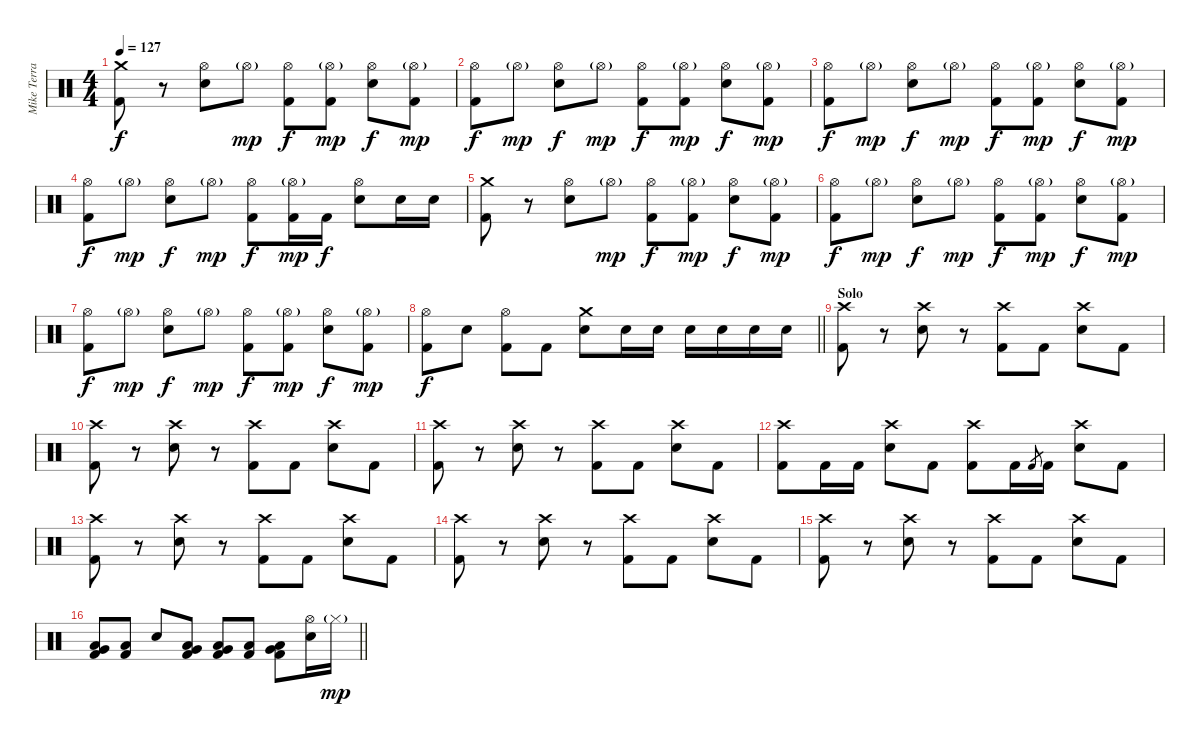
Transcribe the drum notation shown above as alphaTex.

\track ("Mike Terrana" "Mike Terra") {instrument percussion}
\staff {score}
\articulation defaults
\ts (4 4)
\tempo 127
\clef neutral
\ks c
("Crash medium (hit)" "Kick (hit) 2").8{dy f} r.8 ("Hi-Hat (open)" "Snare (hit) 2").8 "Hi-Hat (open)"{g}.8{dy mp} ("Hi-Hat (open)" "Kick (hit) 2").8{dy f} ("Hi-Hat (open)"{g} "Kick (hit) 2").8{dy mp} ("Hi-Hat (open)" "Snare (hit) 2").8{dy f} ("Hi-Hat (open)"{g} "Kick (hit) 2").8{dy mp} |
("Hi-Hat (open)" "Kick (hit) 2").8{dy f} "Hi-Hat (open)"{g}.8{dy mp} ("Hi-Hat (open)" "Snare (hit) 2").8{dy f} "Hi-Hat (open)"{g}.8{dy mp} ("Hi-Hat (open)" "Kick (hit) 2").8{dy f} ("Hi-Hat (open)"{g} "Kick (hit) 2").8{dy mp} ("Hi-Hat (open)" "Snare (hit) 2").8{dy f} ("Hi-Hat (open)"{g} "Kick (hit) 2").8{dy mp} |
("Hi-Hat (open)" "Kick (hit) 2").8{dy f} "Hi-Hat (open)"{g}.8{dy mp} ("Hi-Hat (open)" "Snare (hit) 2").8{dy f} "Hi-Hat (open)"{g}.8{dy mp} ("Hi-Hat (open)" "Kick (hit) 2").8{dy f} ("Hi-Hat (open)"{g} "Kick (hit) 2").8{dy mp} ("Hi-Hat (open)" "Snare (hit) 2").8{dy f} ("Hi-Hat (open)"{g} "Kick (hit) 2").8{dy mp} |
("Hi-Hat (open)" "Kick (hit) 2").8{dy f} "Hi-Hat (open)"{g}.8{dy mp} ("Hi-Hat (open)" "Snare (hit) 2").8{dy f} "Hi-Hat (open)"{g}.8{dy mp} ("Hi-Hat (open)" "Kick (hit) 2").8{dy f} ("Hi-Hat (open)"{g} "Kick (hit) 2").16{dy mp} "Kick (hit) 2".16{dy f} ("Hi-Hat (open)" "Snare (hit) 2").8 "Snare (hit) 2".16 "Snare (hit) 2".16 |
("Crash medium (hit)" "Kick (hit) 2").8 r.8 ("Hi-Hat (open)" "Snare (hit) 2").8 "Hi-Hat (open)"{g}.8{dy mp} ("Hi-Hat (open)" "Kick (hit) 2").8{dy f} ("Hi-Hat (open)"{g} "Kick (hit) 2").8{dy mp} ("Hi-Hat (open)" "Snare (hit) 2").8{dy f} ("Hi-Hat (open)"{g} "Kick (hit) 2").8{dy mp} |
("Hi-Hat (open)" "Kick (hit) 2").8{dy f} "Hi-Hat (open)"{g}.8{dy mp} ("Hi-Hat (open)" "Snare (hit) 2").8{dy f} "Hi-Hat (open)"{g}.8{dy mp} ("Hi-Hat (open)" "Kick (hit) 2").8{dy f} ("Hi-Hat (open)"{g} "Kick (hit) 2").8{dy mp} ("Hi-Hat (open)" "Snare (hit) 2").8{dy f} ("Hi-Hat (open)"{g} "Kick (hit) 2").8{dy mp} |
("Hi-Hat (open)" "Kick (hit) 2").8{dy f} "Hi-Hat (open)"{g}.8{dy mp} ("Hi-Hat (open)" "Snare (hit) 2").8{dy f} "Hi-Hat (open)"{g}.8{dy mp} ("Hi-Hat (open)" "Kick (hit) 2").8{dy f} ("Hi-Hat (open)"{g} "Kick (hit) 2").8{dy mp} ("Hi-Hat (open)" "Snare (hit) 2").8{dy f} ("Hi-Hat (open)"{g} "Kick (hit) 2").8{dy mp} |
\barLineRight lightlight
("Hi-Hat (open)" "Kick (hit) 2").8{dy f} "Snare (hit) 2".8 ("Hi-Hat (open)" "Kick (hit) 2").8 "Kick (hit) 2".8 ("Crash medium (hit)" "Snare (hit) 2").8 "Snare (hit) 2".16 "Snare (hit) 2".16 "Snare (hit) 2".16 "Snare (hit) 2".16 "Snare (hit) 2".16 "Snare (hit) 2".16 |
\section ("" "Solo")
("Crash high (hit)" "Kick (hit) 2").8 r.8 ("Crash high (hit)" "Snare (hit) 2").8 r.8 ("Crash high (hit)" "Kick (hit) 2").8 "Kick (hit) 2".8 ("Crash high (hit)" "Snare (hit) 2").8 "Kick (hit) 2".8 |
("Crash high (hit)" "Kick (hit) 2").8 r.8 ("Crash high (hit)" "Snare (hit) 2").8 r.8 ("Crash high (hit)" "Kick (hit) 2").8 "Kick (hit) 2".8 ("Crash high (hit)" "Snare (hit) 2").8 "Kick (hit) 2".8 |
("Crash high (hit)" "Kick (hit) 2").8 r.8 ("Crash high (hit)" "Snare (hit) 2").8 r.8 ("Crash high (hit)" "Kick (hit) 2").8 "Kick (hit) 2".8 ("Crash high (hit)" "Snare (hit) 2").8 "Kick (hit) 2".8 |
("Crash high (hit)" "Kick (hit) 2").8 "Kick (hit) 2".16 "Kick (hit) 2".16 ("Crash high (hit)" "Snare (hit) 2").8 "Kick (hit) 2".8 ("Crash high (hit)" "Kick (hit) 2").8 "Kick (hit) 2".16 "Kick (hit) 2".8{gr} "Kick (hit) 2".16 ("Crash high (hit)" "Snare (hit) 2").8 "Kick (hit) 2".8 |
("Crash high (hit)" "Kick (hit) 2").8 r.8 ("Crash high (hit)" "Snare (hit) 2").8 r.8 ("Crash high (hit)" "Kick (hit) 2").8 "Kick (hit) 2".8 ("Crash high (hit)" "Snare (hit) 2").8 "Kick (hit) 2".8 |
("Crash high (hit)" "Kick (hit) 2").8 r.8 ("Crash high (hit)" "Snare (hit) 2").8 r.8 ("Crash high (hit)" "Kick (hit) 2").8 "Kick (hit) 2".8 ("Crash high (hit)" "Snare (hit) 2").8 "Kick (hit) 2".8 |
("Crash high (hit)" "Kick (hit) 2").8 r.8 ("Crash high (hit)" "Snare (hit) 2").8 r.8 ("Crash high (hit)" "Kick (hit) 2").8 "Kick (hit) 2".8 ("Crash high (hit)" "Snare (hit) 2").8 "Kick (hit) 2".8 |
\barLineRight lightlight
("Very Low Tom (hit)" "Low Floor Tom (hit)" "Kick (hit) 2").8 ("Low Floor Tom (hit)" "Kick (hit) 2").8 "Snare (hit) 2".8 ("Very Low Tom (hit)" "Low Floor Tom (hit)" "Kick (hit) 2").8 ("Very Low Tom (hit)" "Low Floor Tom (hit)" "Kick (hit) 2").8 ("Low Floor Tom (hit)" "Kick (hit) 2").8 ("Very Low Tom (hit)" "Low Floor Tom (hit)" "Kick (hit) 2").8 ("Hi-Hat (open)" "Snare (hit) 2").16 "Hi-Hat (closed)"{g}.16{dy mp}
